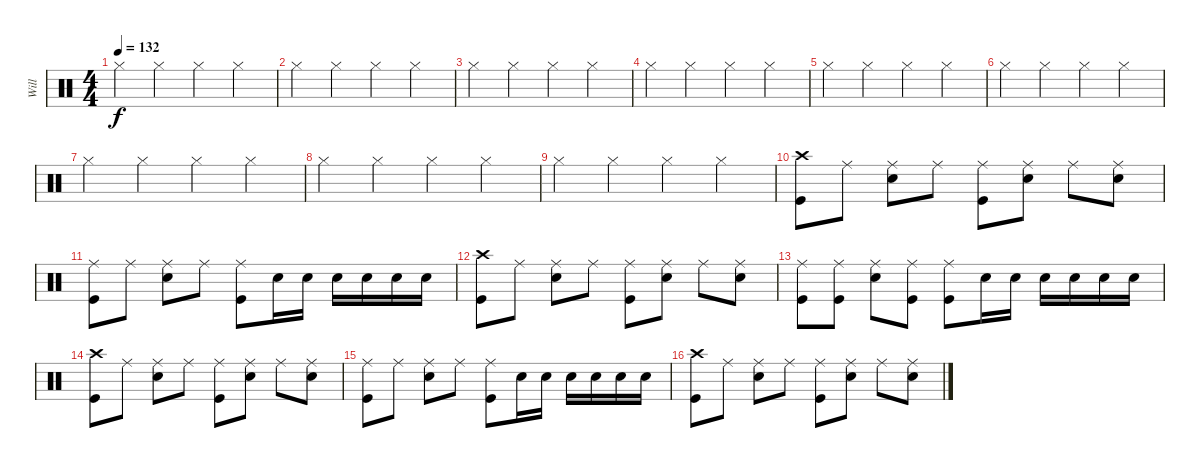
\track ("Will" "Will") {instrument percussion}
\staff {score}
\articulation defaults
\ts (4 4)
\tempo 132
\clef neutral
\ks c "Hi-Hat (closed)".4{dy f} "Hi-Hat (closed)".4 "Hi-Hat (closed)".4 "Hi-Hat (closed)".4
|
"Hi-Hat (closed)".4 "Hi-Hat (closed)".4 "Hi-Hat (closed)".4 "Hi-Hat (closed)".4 |
"Hi-Hat (closed)".4 "Hi-Hat (closed)".4 "Hi-Hat (closed)".4 "Hi-Hat (closed)".4 |
"Hi-Hat (closed)".4 "Hi-Hat (closed)".4 "Hi-Hat (closed)".4 "Hi-Hat (closed)".4 |
"Hi-Hat (closed)".4 "Hi-Hat (closed)".4 "Hi-Hat (closed)".4 "Hi-Hat (closed)".4 |
"Hi-Hat (closed)".4 "Hi-Hat (closed)".4 "Hi-Hat (closed)".4 "Hi-Hat (closed)".4 |
"Hi-Hat (closed)".4 "Hi-Hat (closed)".4 "Hi-Hat (closed)".4 "Hi-Hat (closed)".4 |
"Hi-Hat (closed)".4 "Hi-Hat (closed)".4 "Hi-Hat (closed)".4 "Hi-Hat (closed)".4 |
"Hi-Hat (closed)".4 "Hi-Hat (closed)".4 "Hi-Hat (closed)".4 "Hi-Hat (closed)".4 |
("Crash high (hit)" "Kick (hit)").8 "Ride (middle)".8 ("Ride (middle)" "Snare (hit) 2").8 "Ride (middle)".8 ("Ride (middle)" "Kick (hit)").8 ("Ride (middle)" "Snare (hit) 2").8 "Ride (middle)".8 ("Ride (middle)" "Snare (hit) 2").8 |
("Ride (middle)" "Kick (hit)").8 "Ride (middle)".8 ("Ride (middle)" "Snare (hit) 2").8 "Ride (middle)".8 ("Ride (middle)" "Kick (hit)").8 "Snare (hit) 2".16 "Snare (hit) 2".16 "Snare (hit) 2".16 "Snare (hit) 2".16 "Snare (hit) 2".16 "Snare (hit) 2".16 |
("Crash high (hit)" "Kick (hit)").8 "Ride (middle)".8 ("Ride (middle)" "Snare (hit) 2").8 "Ride (middle)".8 ("Ride (middle)" "Kick (hit)").8 ("Ride (middle)" "Snare (hit) 2").8 "Ride (middle)".8 ("Ride (middle)" "Snare (hit) 2").8 |
("Ride (middle)" "Kick (hit)").8 ("Ride (middle)" "Kick (hit)").8 ("Ride (middle)" "Snare (hit) 2").8 ("Ride (middle)" "Kick (hit)").8 ("Ride (middle)" "Kick (hit)").8 "Snare (hit) 2".16 "Snare (hit) 2".16 "Snare (hit) 2".16 "Snare (hit) 2".16 "Snare (hit) 2".16 "Snare (hit) 2".16 |
("Crash high (hit)" "Kick (hit)").8 "Ride (middle)".8 ("Ride (middle)" "Snare (hit) 2").8 "Ride (middle)".8 ("Ride (middle)" "Kick (hit)").8 ("Ride (middle)" "Snare (hit) 2").8 "Ride (middle)".8 ("Ride (middle)" "Snare (hit) 2").8 |
("Ride (middle)" "Kick (hit)").8 "Ride (middle)".8 ("Ride (middle)" "Snare (hit) 2").8 "Ride (middle)".8 ("Ride (middle)" "Kick (hit)").8 "Snare (hit) 2".16 "Snare (hit) 2".16 "Snare (hit) 2".16 "Snare (hit) 2".16 "Snare (hit) 2".16 "Snare (hit) 2".16 |
("Crash high (hit)" "Kick (hit)").8 "Ride (middle)".8 ("Ride (middle)" "Snare (hit) 2").8 "Ride (middle)".8 ("Ride (middle)" "Kick (hit)").8 ("Ride (middle)" "Snare (hit) 2").8 "Ride (middle)".8 ("Ride (middle)" "Snare (hit) 2").8
